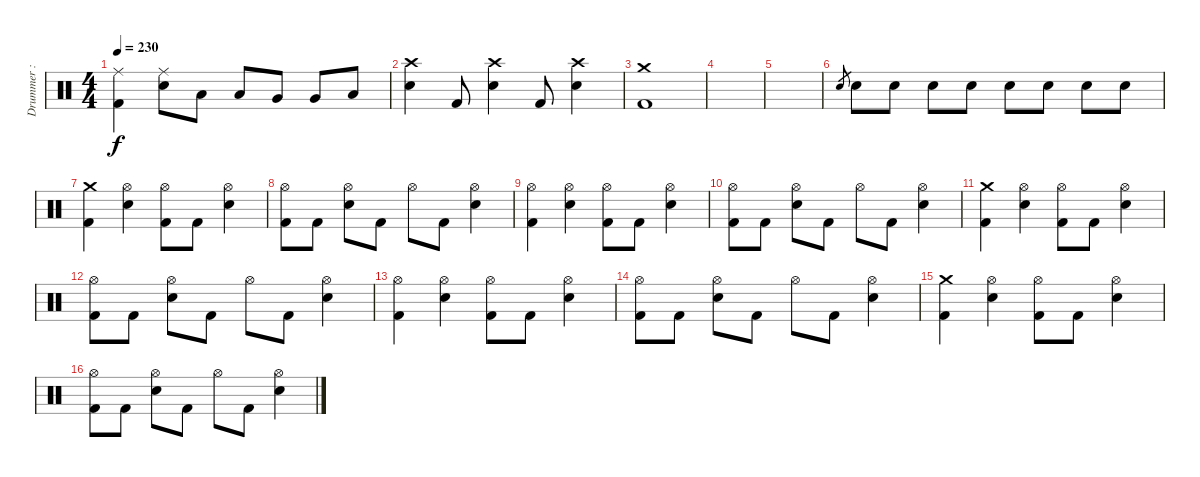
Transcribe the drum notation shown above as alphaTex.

\track ("Drummer : Tainaka Ritsu - Swan" "Drummer : ") {instrument percussion}
\staff {score}
\articulation defaults
\ts (4 4)
\tempo 230
\clef neutral
\ks c
("Ride (middle)" "Kick (hit) 2").4{dy f} ("Ride (middle)" "Electric Snare (hit)").8 "Low Tom (hit)".8 "Low Tom (hit)".8 "Very Low Tom (hit)".8 "Very Low Tom (hit)".8 "Low Floor Tom (hit)".8 |
("Crash high (hit)" "Electric Snare (hit)").4 "Kick (hit) 2".8 ("Crash high (hit)" "Electric Snare (hit)").4 "Kick (hit) 2".8 ("Crash high (hit)" "Electric Snare (hit)").4 |
("Crash medium (hit)" "Kick (hit) 2").1 |
|
|
"Electric Snare (hit)".8{gr} "Electric Snare (hit)".8 "Electric Snare (hit)".8 "Electric Snare (hit)".8 "Electric Snare (hit)".8 "Electric Snare (hit)".8 "Electric Snare (hit)".8 "Electric Snare (hit)".8 "Electric Snare (hit)".8 |
("Crash medium (hit)" "Kick (hit) 2").4 ("Hi-Hat (open)" "Electric Snare (hit)").4 ("Hi-Hat (open)" "Kick (hit) 2").8 "Kick (hit) 2".8 ("Hi-Hat (open)" "Electric Snare (hit)").4 |
("Hi-Hat (open)" "Kick (hit) 2").8 "Kick (hit) 2".8 ("Hi-Hat (open)" "Electric Snare (hit)").8 "Kick (hit) 2".8 "Hi-Hat (open)".8 "Kick (hit) 2".8 ("Hi-Hat (open)" "Electric Snare (hit)").4 |
("Hi-Hat (open)" "Kick (hit) 2").4 ("Hi-Hat (open)" "Electric Snare (hit)").4 ("Hi-Hat (open)" "Kick (hit) 2").8 "Kick (hit) 2".8 ("Hi-Hat (open)" "Electric Snare (hit)").4 |
("Hi-Hat (open)" "Kick (hit) 2").8 "Kick (hit) 2".8 ("Hi-Hat (open)" "Electric Snare (hit)").8 "Kick (hit) 2".8 "Hi-Hat (open)".8 "Kick (hit) 2".8 ("Hi-Hat (open)" "Electric Snare (hit)").4 |
("Crash medium (hit)" "Kick (hit) 2").4 ("Hi-Hat (open)" "Electric Snare (hit)").4 ("Hi-Hat (open)" "Kick (hit) 2").8 "Kick (hit) 2".8 ("Hi-Hat (open)" "Electric Snare (hit)").4 |
("Hi-Hat (open)" "Kick (hit) 2").8 "Kick (hit) 2".8 ("Hi-Hat (open)" "Electric Snare (hit)").8 "Kick (hit) 2".8 "Hi-Hat (open)".8 "Kick (hit) 2".8 ("Hi-Hat (open)" "Electric Snare (hit)").4 |
("Hi-Hat (open)" "Kick (hit) 2").4 ("Hi-Hat (open)" "Electric Snare (hit)").4 ("Hi-Hat (open)" "Kick (hit) 2").8 "Kick (hit) 2".8 ("Hi-Hat (open)" "Electric Snare (hit)").4 |
("Hi-Hat (open)" "Kick (hit) 2").8 "Kick (hit) 2".8 ("Hi-Hat (open)" "Electric Snare (hit)").8 "Kick (hit) 2".8 "Hi-Hat (open)".8 "Kick (hit) 2".8 ("Hi-Hat (open)" "Electric Snare (hit)").4 |
("Crash medium (hit)" "Kick (hit) 2").4 ("Hi-Hat (open)" "Electric Snare (hit)").4 ("Hi-Hat (open)" "Kick (hit) 2").8 "Kick (hit) 2".8 ("Hi-Hat (open)" "Electric Snare (hit)").4 |
("Hi-Hat (open)" "Kick (hit) 2").8 "Kick (hit) 2".8 ("Hi-Hat (open)" "Electric Snare (hit)").8 "Kick (hit) 2".8 "Hi-Hat (open)".8 "Kick (hit) 2".8 ("Hi-Hat (open)" "Electric Snare (hit)").4
